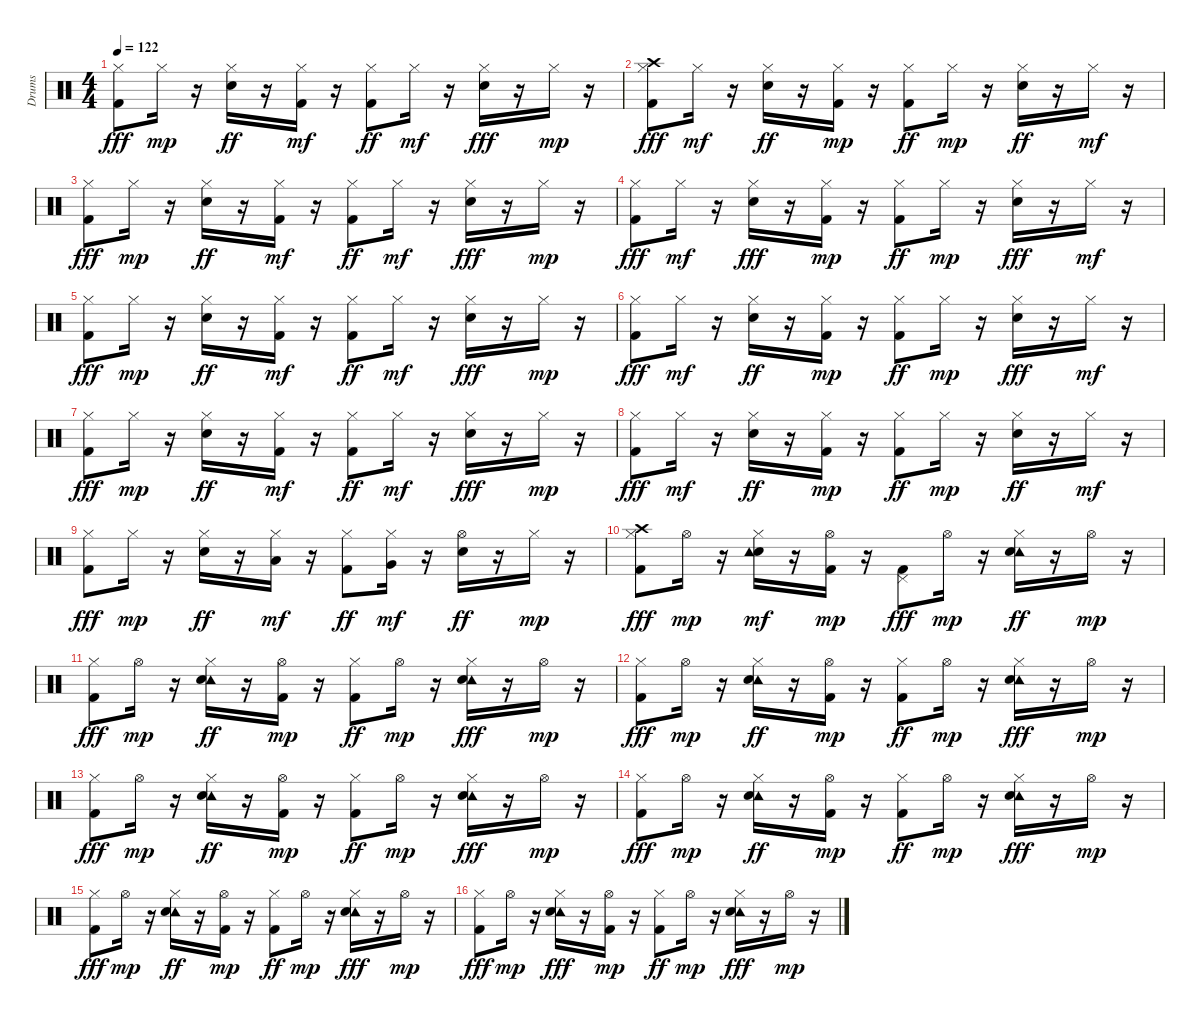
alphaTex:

\track ("Drums" "Drums") {instrument percussion}
\staff {score}
\articulation defaults
\ts (4 4)
\tempo 122
\clef neutral
\ks c
("Kick (hit) 2" "Hi-Hat (closed)").8{dy fff} "Hi-Hat (closed)".16{dy mp} r.16 ("Snare (hit) 2" "Hi-Hat (closed)").16{dy ff} r.16 ("Kick (hit) 2" "Hi-Hat (closed)").16{dy mf} r.16 ("Kick (hit) 2" "Hi-Hat (closed)").8{dy ff} "Hi-Hat (closed)".16{dy mf} r.16 ("Snare (hit) 2" "Hi-Hat (closed)").16{dy fff} r.16 "Hi-Hat (closed)".16{dy mp} r.16 |
("Crash high (hit)" "Kick (hit) 2" "Hi-Hat (closed)").8{dy fff} "Hi-Hat (closed)".16{dy mf} r.16 ("Snare (hit) 2" "Hi-Hat (closed)").16{dy ff} r.16 ("Kick (hit) 2" "Hi-Hat (closed)").16{dy mp} r.16 ("Kick (hit) 2" "Hi-Hat (closed)").8{dy ff} "Hi-Hat (closed)".16{dy mp} r.16 ("Snare (hit) 2" "Hi-Hat (closed)").16{dy ff} r.16 "Hi-Hat (closed)".16{dy mf} r.16 |
("Kick (hit) 2" "Hi-Hat (closed)").8{dy fff} "Hi-Hat (closed)".16{dy mp} r.16 ("Snare (hit) 2" "Hi-Hat (closed)").16{dy ff} r.16 ("Kick (hit) 2" "Hi-Hat (closed)").16{dy mf} r.16 ("Kick (hit) 2" "Hi-Hat (closed)").8{dy ff} "Hi-Hat (closed)".16{dy mf} r.16 ("Snare (hit) 2" "Hi-Hat (closed)").16{dy fff} r.16 "Hi-Hat (closed)".16{dy mp} r.16 |
("Hi-Hat (closed)" "Kick (hit) 2").8{dy fff} "Hi-Hat (closed)".16{dy mf} r.16 ("Hi-Hat (closed)" "Snare (hit) 2").16{dy fff} r.16 ("Kick (hit) 2" "Hi-Hat (closed)").16{dy mp} r.16 ("Kick (hit) 2" "Hi-Hat (closed)").8{dy ff} "Hi-Hat (closed)".16{dy mp} r.16 ("Hi-Hat (closed)" "Snare (hit) 2").16{dy fff} r.16 "Hi-Hat (closed)".16{dy mf} r.16 |
("Kick (hit) 2" "Hi-Hat (closed)").8{dy fff} "Hi-Hat (closed)".16{dy mp} r.16 ("Snare (hit) 2" "Hi-Hat (closed)").16{dy ff} r.16 ("Kick (hit) 2" "Hi-Hat (closed)").16{dy mf} r.16 ("Kick (hit) 2" "Hi-Hat (closed)").8{dy ff} "Hi-Hat (closed)".16{dy mf} r.16 ("Snare (hit) 2" "Hi-Hat (closed)").16{dy fff} r.16 "Hi-Hat (closed)".16{dy mp} r.16 |
("Kick (hit) 2" "Hi-Hat (closed)").8{dy fff} "Hi-Hat (closed)".16{dy mf} r.16 ("Snare (hit) 2" "Hi-Hat (closed)").16{dy ff} r.16 ("Kick (hit) 2" "Hi-Hat (closed)").16{dy mp} r.16 ("Kick (hit) 2" "Hi-Hat (closed)").8{dy ff} "Hi-Hat (closed)".16{dy mp} r.16 ("Hi-Hat (closed)" "Snare (hit) 2").16{dy fff} r.16 "Hi-Hat (closed)".16{dy mf} r.16 |
("Kick (hit) 2" "Hi-Hat (closed)").8{dy fff} "Hi-Hat (closed)".16{dy mp} r.16 ("Snare (hit) 2" "Hi-Hat (closed)").16{dy ff} r.16 ("Kick (hit) 2" "Hi-Hat (closed)").16{dy mf} r.16 ("Kick (hit) 2" "Hi-Hat (closed)").8{dy ff} "Hi-Hat (closed)".16{dy mf} r.16 ("Snare (hit) 2" "Hi-Hat (closed)").16{dy fff} r.16 "Hi-Hat (closed)".16{dy mp} r.16 |
("Hi-Hat (closed)" "Kick (hit) 2").8{dy fff} "Hi-Hat (closed)".16{dy mf} r.16 ("Snare (hit) 2" "Hi-Hat (closed)").16{dy ff} r.16 ("Kick (hit) 2" "Hi-Hat (closed)").16{dy mp} r.16 ("Kick (hit) 2" "Hi-Hat (closed)").8{dy ff} "Hi-Hat (closed)".16{dy mp} r.16 ("Snare (hit) 2" "Hi-Hat (closed)").16{dy ff} r.16 "Hi-Hat (closed)".16{dy mf} r.16 |
("Kick (hit) 2" "Hi-Hat (closed)").8{dy fff} "Hi-Hat (closed)".16{dy mp} r.16 ("Snare (hit) 2" "Hi-Hat (closed)").16{dy ff} r.16 ("Low Tom (hit)" "Hi-Hat (closed)").16{dy mf} r.16 ("Kick (hit) 2" "Hi-Hat (closed)").8{dy ff} ("Very Low Tom (hit)" "Hi-Hat (closed)").16{dy mf} r.16 ("Snare (hit) 2" "Hi-Hat (open)").16{dy ff} r.16 "Hi-Hat (closed)".16{dy mp} r.16 |
("Hi-Hat (closed)" "Crash high (hit)" "Kick (hit) 2").8{dy fff} "Hi-Hat (open)".16{dy mp} r.16 ("Snare (hit) 2" "Hi-Hat (closed)" "Tambourine (hit)").16{dy mf} r.16 ("Kick (hit) 2" "Hi-Hat (open)").16{dy mp} r.16 ("Pedal Hi-Hat (hit)" "Kick (hit) 2").8{dy fff} "Hi-Hat (open)".16{dy mp} r.16 ("Tambourine (hit)" "Snare (hit) 2" "Hi-Hat (closed)").16{dy ff} r.16 "Hi-Hat (open)".16{dy mp} r.16 |
("Kick (hit) 2" "Hi-Hat (closed)").8{dy fff} "Hi-Hat (open)".16{dy mp} r.16 ("Tambourine (hit)" "Snare (hit) 2" "Hi-Hat (closed)").16{dy ff} r.16 ("Kick (hit) 2" "Hi-Hat (open)").16{dy mp} r.16 ("Kick (hit) 2" "Hi-Hat (closed)").8{dy ff} "Hi-Hat (open)".16{dy mp} r.16 ("Tambourine (hit)" "Snare (hit) 2" "Hi-Hat (closed)").16{dy fff} r.16 "Hi-Hat (open)".16{dy mp} r.16 |
("Hi-Hat (closed)" "Kick (hit) 2").8{dy fff} "Hi-Hat (open)".16{dy mp} r.16 ("Tambourine (hit)" "Snare (hit) 2" "Hi-Hat (closed)").16{dy ff} r.16 ("Kick (hit) 2" "Hi-Hat (open)").16{dy mp} r.16 ("Kick (hit) 2" "Hi-Hat (closed)").8{dy ff} "Hi-Hat (open)".16{dy mp} r.16 ("Tambourine (hit)" "Hi-Hat (closed)" "Snare (hit) 2").16{dy fff} r.16 "Hi-Hat (open)".16{dy mp} r.16 |
("Kick (hit) 2" "Hi-Hat (closed)").8{dy fff} "Hi-Hat (open)".16{dy mp} r.16 ("Tambourine (hit)" "Snare (hit) 2" "Hi-Hat (closed)").16{dy ff} r.16 ("Kick (hit) 2" "Hi-Hat (open)").16{dy mp} r.16 ("Kick (hit) 2" "Hi-Hat (closed)").8{dy ff} "Hi-Hat (open)".16{dy mp} r.16 ("Tambourine (hit)" "Snare (hit) 2" "Hi-Hat (closed)").16{dy fff} r.16 "Hi-Hat (open)".16{dy mp} r.16 |
("Kick (hit) 2" "Hi-Hat (closed)").8{dy fff} "Hi-Hat (open)".16{dy mp} r.16 ("Tambourine (hit)" "Snare (hit) 2" "Hi-Hat (closed)").16{dy ff} r.16 ("Kick (hit) 2" "Hi-Hat (open)").16{dy mp} r.16 ("Kick (hit) 2" "Hi-Hat (closed)").8{dy ff} "Hi-Hat (open)".16{dy mp} r.16 ("Tambourine (hit)" "Hi-Hat (closed)" "Snare (hit) 2").16{dy fff} r.16 "Hi-Hat (open)".16{dy mp} r.16 |
("Kick (hit) 2" "Hi-Hat (closed)").8{dy fff} "Hi-Hat (open)".16{dy mp} r.16 ("Tambourine (hit)" "Snare (hit) 2" "Hi-Hat (closed)").16{dy ff} r.16 ("Kick (hit) 2" "Hi-Hat (open)").16{dy mp} r.16 ("Kick (hit) 2" "Hi-Hat (closed)").8{dy ff} "Hi-Hat (open)".16{dy mp} r.16 ("Tambourine (hit)" "Snare (hit) 2" "Hi-Hat (closed)").16{dy fff} r.16 "Hi-Hat (open)".16{dy mp} r.16 |
("Hi-Hat (closed)" "Kick (hit) 2").8{dy fff} "Hi-Hat (open)".16{dy mp} r.16 ("Tambourine (hit)" "Hi-Hat (closed)" "Snare (hit) 2").16{dy fff} r.16 ("Kick (hit) 2" "Hi-Hat (open)").16{dy mp} r.16 ("Kick (hit) 2" "Hi-Hat (closed)").8{dy ff} "Hi-Hat (open)".16{dy mp} r.16 ("Tambourine (hit)" "Hi-Hat (closed)" "Snare (hit) 2").16{dy fff} r.16 "Hi-Hat (open)".16{dy mp} r.16
